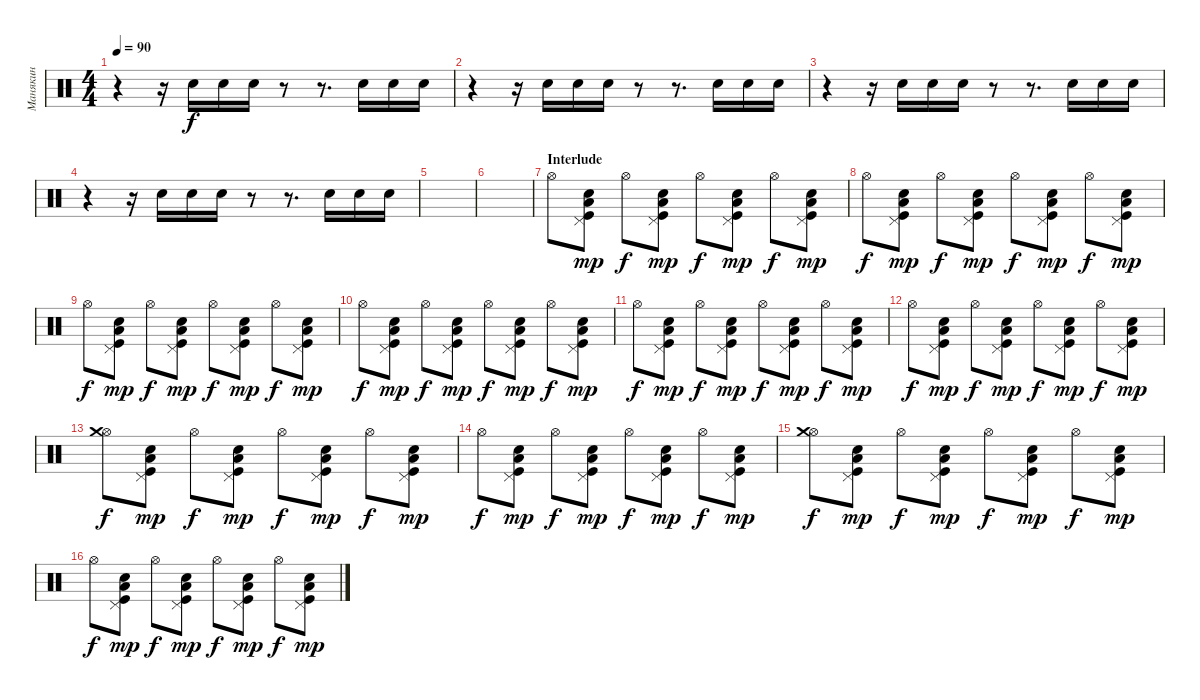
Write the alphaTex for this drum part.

\track ("Манякин" "Манякин") {instrument percussion}
\staff {score}
\articulation defaults
\ts (4 4)
\tempo 90
\clef neutral
\ks c
r.4{dy f} r.16 "Snare (hit) 2".16 "Snare (hit) 2".16 "Snare (hit) 2".16 r.8 r.8{d} "Snare (hit) 2".16 "Snare (hit) 2".16 "Snare (hit) 2".16 |
r.4 r.16 "Snare (hit) 2".16 "Snare (hit) 2".16 "Snare (hit) 2".16 r.8 r.8{d} "Snare (hit) 2".16 "Snare (hit) 2".16 "Snare (hit) 2".16 |
r.4 r.16 "Snare (hit) 2".16 "Snare (hit) 2".16 "Snare (hit) 2".16 r.8 r.8{d} "Snare (hit) 2".16 "Snare (hit) 2".16 "Snare (hit) 2".16 |
r.4 r.16 "Snare (hit) 2".16 "Snare (hit) 2".16 "Snare (hit) 2".16 r.8 r.8{d} "Snare (hit) 2".16 "Snare (hit) 2".16 "Snare (hit) 2".16 |
|
|
\section ("" "Interlude")
"Hi-Hat (open)".8{volume 10} ("Low Tom (hit)" "Kick (hit)" "Pedal Hi-Hat (hit)" "Electric Snare (hit)").8{dy mp} "Hi-Hat (open)".8{dy f} ("Low Tom (hit)" "Kick (hit)" "Pedal Hi-Hat (hit)" "Electric Snare (hit)").8{dy mp} "Hi-Hat (open)".8{dy f} ("Low Tom (hit)" "Kick (hit)" "Pedal Hi-Hat (hit)" "Electric Snare (hit)").8{dy mp} "Hi-Hat (open)".8{dy f} ("Low Tom (hit)" "Kick (hit)" "Pedal Hi-Hat (hit)" "Electric Snare (hit)").8{dy mp} |
"Hi-Hat (open)".8{dy f volume 10} ("Low Tom (hit)" "Kick (hit)" "Pedal Hi-Hat (hit)" "Electric Snare (hit)").8{dy mp} "Hi-Hat (open)".8{dy f} ("Low Tom (hit)" "Kick (hit)" "Pedal Hi-Hat (hit)" "Electric Snare (hit)").8{dy mp} "Hi-Hat (open)".8{dy f} ("Low Tom (hit)" "Kick (hit)" "Pedal Hi-Hat (hit)" "Electric Snare (hit)").8{dy mp} "Hi-Hat (open)".8{dy f} ("Low Tom (hit)" "Kick (hit)" "Pedal Hi-Hat (hit)" "Electric Snare (hit)").8{dy mp} |
"Hi-Hat (open)".8{dy f volume 10} ("Low Tom (hit)" "Kick (hit)" "Pedal Hi-Hat (hit)" "Electric Snare (hit)").8{dy mp} "Hi-Hat (open)".8{dy f} ("Low Tom (hit)" "Kick (hit)" "Pedal Hi-Hat (hit)" "Electric Snare (hit)").8{dy mp} "Hi-Hat (open)".8{dy f} ("Low Tom (hit)" "Kick (hit)" "Pedal Hi-Hat (hit)" "Electric Snare (hit)").8{dy mp} "Hi-Hat (open)".8{dy f} ("Low Tom (hit)" "Kick (hit)" "Pedal Hi-Hat (hit)" "Electric Snare (hit)").8{dy mp} |
"Hi-Hat (open)".8{dy f volume 10} ("Low Tom (hit)" "Kick (hit)" "Pedal Hi-Hat (hit)" "Electric Snare (hit)").8{dy mp} "Hi-Hat (open)".8{dy f} ("Low Tom (hit)" "Kick (hit)" "Pedal Hi-Hat (hit)" "Electric Snare (hit)").8{dy mp} "Hi-Hat (open)".8{dy f} ("Low Tom (hit)" "Kick (hit)" "Pedal Hi-Hat (hit)" "Electric Snare (hit)").8{dy mp} "Hi-Hat (open)".8{dy f} ("Low Tom (hit)" "Kick (hit)" "Pedal Hi-Hat (hit)" "Electric Snare (hit)").8{dy mp} |
"Hi-Hat (open)".8{dy f volume 9} ("Low Tom (hit)" "Kick (hit)" "Pedal Hi-Hat (hit)" "Electric Snare (hit)").8{dy mp} "Hi-Hat (open)".8{dy f} ("Low Tom (hit)" "Kick (hit)" "Pedal Hi-Hat (hit)" "Electric Snare (hit)").8{dy mp} "Hi-Hat (open)".8{dy f} ("Low Tom (hit)" "Kick (hit)" "Pedal Hi-Hat (hit)" "Electric Snare (hit)").8{dy mp} "Hi-Hat (open)".8{dy f} ("Low Tom (hit)" "Kick (hit)" "Pedal Hi-Hat (hit)" "Electric Snare (hit)").8{dy mp} |
"Hi-Hat (open)".8{dy f} ("Low Tom (hit)" "Kick (hit)" "Pedal Hi-Hat (hit)" "Electric Snare (hit)").8{dy mp} "Hi-Hat (open)".8{dy f} ("Low Tom (hit)" "Kick (hit)" "Pedal Hi-Hat (hit)" "Electric Snare (hit)").8{dy mp} "Hi-Hat (open)".8{dy f} ("Low Tom (hit)" "Kick (hit)" "Pedal Hi-Hat (hit)" "Electric Snare (hit)").8{dy mp} "Hi-Hat (open)".8{dy f} ("Low Tom (hit)" "Kick (hit)" "Pedal Hi-Hat (hit)" "Electric Snare (hit)").8{dy mp} |
("Hi-Hat (open)" "Crash medium (hit)").8{dy f} ("Low Tom (hit)" "Kick (hit)" "Pedal Hi-Hat (hit)" "Electric Snare (hit)").8{dy mp} "Hi-Hat (open)".8{dy f} ("Low Tom (hit)" "Kick (hit)" "Pedal Hi-Hat (hit)" "Electric Snare (hit)").8{dy mp} "Hi-Hat (open)".8{dy f} ("Low Tom (hit)" "Kick (hit)" "Pedal Hi-Hat (hit)" "Electric Snare (hit)").8{dy mp} "Hi-Hat (open)".8{dy f} ("Low Tom (hit)" "Kick (hit)" "Pedal Hi-Hat (hit)" "Electric Snare (hit)").8{dy mp} |
"Hi-Hat (open)".8{dy f} ("Low Tom (hit)" "Kick (hit)" "Pedal Hi-Hat (hit)" "Electric Snare (hit)").8{dy mp} "Hi-Hat (open)".8{dy f} ("Low Tom (hit)" "Kick (hit)" "Pedal Hi-Hat (hit)" "Electric Snare (hit)").8{dy mp} "Hi-Hat (open)".8{dy f} ("Low Tom (hit)" "Kick (hit)" "Pedal Hi-Hat (hit)" "Electric Snare (hit)").8{dy mp} "Hi-Hat (open)".8{dy f} ("Low Tom (hit)" "Kick (hit)" "Pedal Hi-Hat (hit)" "Electric Snare (hit)").8{dy mp} |
("Hi-Hat (open)" "Crash medium (hit)").8{dy f} ("Low Tom (hit)" "Kick (hit)" "Pedal Hi-Hat (hit)" "Electric Snare (hit)").8{dy mp} "Hi-Hat (open)".8{dy f} ("Low Tom (hit)" "Kick (hit)" "Pedal Hi-Hat (hit)" "Electric Snare (hit)").8{dy mp} "Hi-Hat (open)".8{dy f} ("Low Tom (hit)" "Kick (hit)" "Pedal Hi-Hat (hit)" "Electric Snare (hit)").8{dy mp} "Hi-Hat (open)".8{dy f} ("Low Tom (hit)" "Kick (hit)" "Pedal Hi-Hat (hit)" "Electric Snare (hit)").8{dy mp} |
"Hi-Hat (open)".8{dy f} ("Low Tom (hit)" "Kick (hit)" "Pedal Hi-Hat (hit)" "Electric Snare (hit)").8{dy mp} "Hi-Hat (open)".8{dy f} ("Low Tom (hit)" "Kick (hit)" "Pedal Hi-Hat (hit)" "Electric Snare (hit)").8{dy mp} "Hi-Hat (open)".8{dy f} ("Low Tom (hit)" "Kick (hit)" "Pedal Hi-Hat (hit)" "Electric Snare (hit)").8{dy mp} "Hi-Hat (open)".8{dy f} ("Low Tom (hit)" "Kick (hit)" "Pedal Hi-Hat (hit)" "Electric Snare (hit)").8{dy mp}
